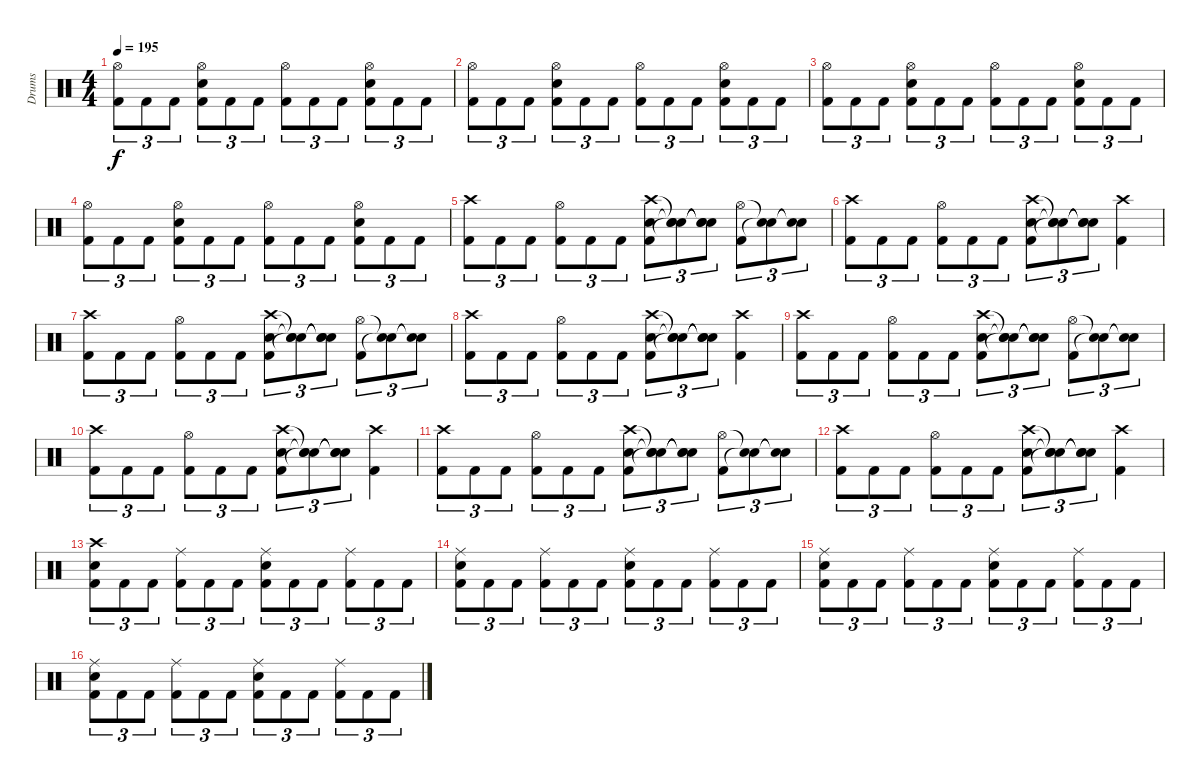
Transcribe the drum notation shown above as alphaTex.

\track ("Drums" "Drums") {instrument percussion}
\staff {score}
\articulation defaults
\ts (4 4)
\tempo 195
\clef neutral
\ks c
("Hi-Hat (open)" "Kick (hit) 2").8{tu (3 2) dy f} "Kick (hit) 2".8{tu (3 2)} "Kick (hit) 2".8{tu (3 2)} ("Hi-Hat (open)" "Snare (hit) 2" "Kick (hit) 2").8{tu (3 2)} "Kick (hit) 2".8{tu (3 2)} "Kick (hit) 2".8{tu (3 2)} ("Hi-Hat (open)" "Kick (hit) 2").8{tu (3 2)} "Kick (hit) 2".8{tu (3 2)} "Kick (hit) 2".8{tu (3 2)} ("Hi-Hat (open)" "Snare (hit) 2" "Kick (hit) 2").8{tu (3 2)} "Kick (hit) 2".8{tu (3 2)} "Kick (hit) 2".8{tu (3 2)} |
("Hi-Hat (open)" "Kick (hit) 2").8{tu (3 2)} "Kick (hit) 2".8{tu (3 2)} "Kick (hit) 2".8{tu (3 2)} ("Hi-Hat (open)" "Snare (hit) 2" "Kick (hit) 2").8{tu (3 2)} "Kick (hit) 2".8{tu (3 2)} "Kick (hit) 2".8{tu (3 2)} ("Hi-Hat (open)" "Kick (hit) 2").8{tu (3 2)} "Kick (hit) 2".8{tu (3 2)} "Kick (hit) 2".8{tu (3 2)} ("Hi-Hat (open)" "Snare (hit) 2" "Kick (hit) 2").8{tu (3 2)} "Kick (hit) 2".8{tu (3 2)} "Kick (hit) 2".8{tu (3 2)} |
("Hi-Hat (open)" "Kick (hit) 2").8{tu (3 2)} "Kick (hit) 2".8{tu (3 2)} "Kick (hit) 2".8{tu (3 2)} ("Hi-Hat (open)" "Snare (hit) 2" "Kick (hit) 2").8{tu (3 2)} "Kick (hit) 2".8{tu (3 2)} "Kick (hit) 2".8{tu (3 2)} ("Hi-Hat (open)" "Kick (hit) 2").8{tu (3 2)} "Kick (hit) 2".8{tu (3 2)} "Kick (hit) 2".8{tu (3 2)} ("Hi-Hat (open)" "Snare (hit) 2" "Kick (hit) 2").8{tu (3 2)} "Kick (hit) 2".8{tu (3 2)} "Kick (hit) 2".8{tu (3 2)} |
("Hi-Hat (open)" "Kick (hit) 2").8{tu (3 2)} "Kick (hit) 2".8{tu (3 2)} "Kick (hit) 2".8{tu (3 2)} ("Hi-Hat (open)" "Snare (hit) 2" "Kick (hit) 2").8{tu (3 2)} "Kick (hit) 2".8{tu (3 2)} "Kick (hit) 2".8{tu (3 2)} ("Hi-Hat (open)" "Kick (hit) 2").8{tu (3 2)} "Kick (hit) 2".8{tu (3 2)} "Kick (hit) 2".8{tu (3 2)} ("Hi-Hat (open)" "Snare (hit) 2" "Kick (hit) 2").8{tu (3 2)} "Kick (hit) 2".8{tu (3 2)} "Kick (hit) 2".8{tu (3 2)} |
("Crash high (hit)" "Kick (hit) 2").8{tu (3 2)} "Kick (hit) 2".8{tu (3 2)} "Kick (hit) 2".8{tu (3 2)} ("Hi-Hat (open)" "Kick (hit) 2").8{tu (3 2)} "Kick (hit) 2".8{tu (3 2)} "Kick (hit) 2".8{tu (3 2)} ("Crash high (hit)" "Snare (hit) 2" "Kick (hit) 2").8{tu (3 2)} ("Snare (hit)"{t} "Snare (hit)"{t} "Snare (hit)"{t}).8{tu (3 2)} ("Snare (hit)"{t} "Snare (hit)"{t} "Snare (hit)"{t}).8{tu (3 2)} ("Hi-Hat (open)" "Kick (hit) 2").8{tu (3 2)} ("Snare (hit)"{t} "Snare (hit)"{t}).8{tu (3 2)} ("Snare (hit)"{t} "Snare (hit)"{t}).8{tu (3 2)} |
("Crash high (hit)" "Kick (hit) 2").8{tu (3 2)} "Kick (hit) 2".8{tu (3 2)} "Kick (hit) 2".8{tu (3 2)} ("Hi-Hat (open)" "Kick (hit) 2").8{tu (3 2)} "Kick (hit) 2".8{tu (3 2)} "Kick (hit) 2".8{tu (3 2)} ("Crash high (hit)" "Snare (hit) 2" "Kick (hit) 2").8{tu (3 2)} ("Snare (hit)"{t} "Snare (hit)"{t} "Snare (hit)"{t}).8{tu (3 2)} ("Snare (hit)"{t} "Snare (hit)"{t} "Snare (hit)"{t}).8{tu (3 2)} ("Crash high (hit)" "Kick (hit) 2").4 |
("Crash high (hit)" "Kick (hit) 2").8{tu (3 2)} "Kick (hit) 2".8{tu (3 2)} "Kick (hit) 2".8{tu (3 2)} ("Hi-Hat (open)" "Kick (hit) 2").8{tu (3 2)} "Kick (hit) 2".8{tu (3 2)} "Kick (hit) 2".8{tu (3 2)} ("Crash high (hit)" "Snare (hit) 2" "Kick (hit) 2").8{tu (3 2)} ("Snare (hit)"{t} "Snare (hit)"{t} "Snare (hit)"{t}).8{tu (3 2)} ("Snare (hit)"{t} "Snare (hit)"{t} "Snare (hit)"{t}).8{tu (3 2)} ("Hi-Hat (open)" "Kick (hit) 2").8{tu (3 2)} ("Snare (hit)"{t} "Snare (hit)"{t}).8{tu (3 2)} ("Snare (hit)"{t} "Snare (hit)"{t}).8{tu (3 2)} |
("Crash high (hit)" "Kick (hit) 2").8{tu (3 2)} "Kick (hit) 2".8{tu (3 2)} "Kick (hit) 2".8{tu (3 2)} ("Hi-Hat (open)" "Kick (hit) 2").8{tu (3 2)} "Kick (hit) 2".8{tu (3 2)} "Kick (hit) 2".8{tu (3 2)} ("Crash high (hit)" "Snare (hit) 2" "Kick (hit) 2").8{tu (3 2)} ("Snare (hit)"{t} "Snare (hit)"{t} "Snare (hit)"{t}).8{tu (3 2)} ("Snare (hit)"{t} "Snare (hit)"{t} "Snare (hit)"{t}).8{tu (3 2)} ("Crash high (hit)" "Kick (hit) 2").4 |
("Crash high (hit)" "Kick (hit) 2").8{tu (3 2)} "Kick (hit) 2".8{tu (3 2)} "Kick (hit) 2".8{tu (3 2)} ("Hi-Hat (open)" "Kick (hit) 2").8{tu (3 2)} "Kick (hit) 2".8{tu (3 2)} "Kick (hit) 2".8{tu (3 2)} ("Crash high (hit)" "Snare (hit) 2" "Kick (hit) 2").8{tu (3 2)} ("Snare (hit)"{t} "Snare (hit)"{t} "Snare (hit)"{t}).8{tu (3 2)} ("Snare (hit)"{t} "Snare (hit)"{t} "Snare (hit)"{t}).8{tu (3 2)} ("Hi-Hat (open)" "Kick (hit) 2").8{tu (3 2)} ("Snare (hit)"{t} "Snare (hit)"{t}).8{tu (3 2)} ("Snare (hit)"{t} "Snare (hit)"{t}).8{tu (3 2)} |
("Crash high (hit)" "Kick (hit) 2").8{tu (3 2)} "Kick (hit) 2".8{tu (3 2)} "Kick (hit) 2".8{tu (3 2)} ("Hi-Hat (open)" "Kick (hit) 2").8{tu (3 2)} "Kick (hit) 2".8{tu (3 2)} "Kick (hit) 2".8{tu (3 2)} ("Crash high (hit)" "Snare (hit) 2" "Kick (hit) 2").8{tu (3 2)} ("Snare (hit)"{t} "Snare (hit)"{t} "Snare (hit)"{t}).8{tu (3 2)} ("Snare (hit)"{t} "Snare (hit)"{t} "Snare (hit)"{t}).8{tu (3 2)} ("Crash high (hit)" "Kick (hit) 2").4 |
("Crash high (hit)" "Kick (hit) 2").8{tu (3 2)} "Kick (hit) 2".8{tu (3 2)} "Kick (hit) 2".8{tu (3 2)} ("Hi-Hat (open)" "Kick (hit) 2").8{tu (3 2)} "Kick (hit) 2".8{tu (3 2)} "Kick (hit) 2".8{tu (3 2)} ("Crash high (hit)" "Snare (hit) 2" "Kick (hit) 2").8{tu (3 2)} ("Snare (hit)"{t} "Snare (hit)"{t} "Snare (hit)"{t}).8{tu (3 2)} ("Snare (hit)"{t} "Snare (hit)"{t} "Snare (hit)"{t}).8{tu (3 2)} ("Hi-Hat (open)" "Kick (hit) 2").8{tu (3 2)} ("Snare (hit)"{t} "Snare (hit)"{t}).8{tu (3 2)} ("Snare (hit)"{t} "Snare (hit)"{t}).8{tu (3 2)} |
("Crash high (hit)" "Kick (hit) 2").8{tu (3 2)} "Kick (hit) 2".8{tu (3 2)} "Kick (hit) 2".8{tu (3 2)} ("Hi-Hat (open)" "Kick (hit) 2").8{tu (3 2)} "Kick (hit) 2".8{tu (3 2)} "Kick (hit) 2".8{tu (3 2)} ("Crash high (hit)" "Snare (hit) 2" "Kick (hit) 2").8{tu (3 2)} ("Snare (hit)"{t} "Snare (hit)"{t} "Snare (hit)"{t}).8{tu (3 2)} ("Snare (hit)"{t} "Snare (hit)"{t} "Snare (hit)"{t}).8{tu (3 2)} ("Crash high (hit)" "Kick (hit) 2").4 |
("Crash high (hit)" "Snare (hit) 2" "Kick (hit) 2").8{tu (3 2)} "Kick (hit) 2".8{tu (3 2)} "Kick (hit) 2".8{tu (3 2)} ("Ride (middle)" "Kick (hit) 2").8{tu (3 2)} "Kick (hit) 2".8{tu (3 2)} "Kick (hit) 2".8{tu (3 2)} ("Ride (middle)" "Snare (hit) 2" "Kick (hit) 2").8{tu (3 2)} "Kick (hit) 2".8{tu (3 2)} "Kick (hit) 2".8{tu (3 2)} ("Ride (middle)" "Kick (hit) 2").8{tu (3 2)} "Kick (hit) 2".8{tu (3 2)} "Kick (hit) 2".8{tu (3 2)} |
("Ride (middle)" "Snare (hit) 2" "Kick (hit) 2").8{tu (3 2)} "Kick (hit) 2".8{tu (3 2)} "Kick (hit) 2".8{tu (3 2)} ("Ride (middle)" "Kick (hit) 2").8{tu (3 2)} "Kick (hit) 2".8{tu (3 2)} "Kick (hit) 2".8{tu (3 2)} ("Ride (middle)" "Snare (hit) 2" "Kick (hit) 2").8{tu (3 2)} "Kick (hit) 2".8{tu (3 2)} "Kick (hit) 2".8{tu (3 2)} ("Ride (middle)" "Kick (hit) 2").8{tu (3 2)} "Kick (hit) 2".8{tu (3 2)} "Kick (hit) 2".8{tu (3 2)} |
("Ride (middle)" "Snare (hit) 2" "Kick (hit) 2").8{tu (3 2)} "Kick (hit) 2".8{tu (3 2)} "Kick (hit) 2".8{tu (3 2)} ("Ride (middle)" "Kick (hit) 2").8{tu (3 2)} "Kick (hit) 2".8{tu (3 2)} "Kick (hit) 2".8{tu (3 2)} ("Ride (middle)" "Snare (hit) 2" "Kick (hit) 2").8{tu (3 2)} "Kick (hit) 2".8{tu (3 2)} "Kick (hit) 2".8{tu (3 2)} ("Ride (middle)" "Kick (hit) 2").8{tu (3 2)} "Kick (hit) 2".8{tu (3 2)} "Kick (hit) 2".8{tu (3 2)} |
("Ride (middle)" "Snare (hit) 2" "Kick (hit) 2").8{tu (3 2)} "Kick (hit) 2".8{tu (3 2)} "Kick (hit) 2".8{tu (3 2)} ("Ride (middle)" "Kick (hit) 2").8{tu (3 2)} "Kick (hit) 2".8{tu (3 2)} "Kick (hit) 2".8{tu (3 2)} ("Ride (middle)" "Snare (hit) 2" "Kick (hit) 2").8{tu (3 2)} "Kick (hit) 2".8{tu (3 2)} "Kick (hit) 2".8{tu (3 2)} ("Ride (middle)" "Kick (hit) 2").8{tu (3 2)} "Kick (hit) 2".8{tu (3 2)} "Kick (hit) 2".8{tu (3 2)}
